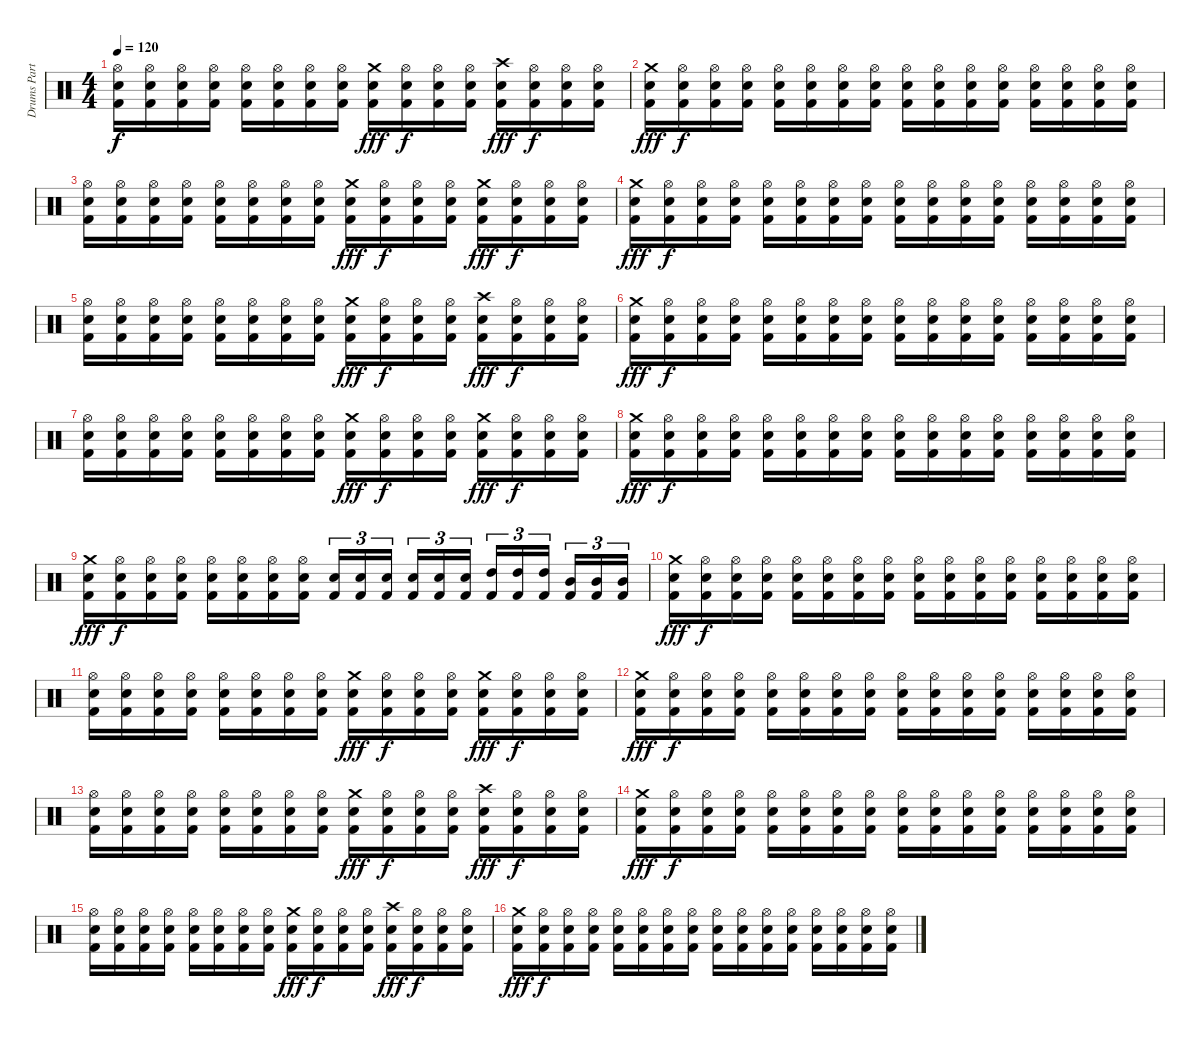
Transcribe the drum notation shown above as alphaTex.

\track ("Drums Part" "Drums Part") {instrument percussion}
\staff {score}
\articulation defaults
\ts (4 4)
\tempo 120
\clef neutral
\ks c
("Hi-Hat (open)" "Electric Snare (hit)" "Kick (hit) 2").16{dy f} ("Hi-Hat (open)" "Electric Snare (hit)" "Kick (hit) 2").16 ("Hi-Hat (open)" "Electric Snare (hit)" "Kick (hit) 2").16 ("Hi-Hat (open)" "Electric Snare (hit)" "Kick (hit) 2").16 ("Hi-Hat (open)" "Electric Snare (hit)" "Kick (hit) 2").16 ("Hi-Hat (open)" "Electric Snare (hit)" "Kick (hit) 2").16 ("Hi-Hat (open)" "Electric Snare (hit)" "Kick (hit) 2").16 ("Hi-Hat (open)" "Electric Snare (hit)" "Kick (hit) 2").16 ("Crash medium (hit)" "Electric Snare (hit)" "Kick (hit) 2").16{dy fff} ("Hi-Hat (open)" "Electric Snare (hit)" "Kick (hit) 2").16{dy f} ("Hi-Hat (open)" "Electric Snare (hit)" "Kick (hit) 2").16 ("Hi-Hat (open)" "Electric Snare (hit)" "Kick (hit) 2").16 ("Crash high (hit)" "Electric Snare (hit)" "Kick (hit) 2").16{dy fff} ("Hi-Hat (open)" "Electric Snare (hit)" "Kick (hit) 2").16{dy f} ("Hi-Hat (open)" "Electric Snare (hit)" "Kick (hit) 2").16 ("Hi-Hat (open)" "Electric Snare (hit)" "Kick (hit) 2").16 |
("Crash medium (hit)" "Electric Snare (hit)" "Kick (hit) 2").16{dy fff} ("Hi-Hat (open)" "Electric Snare (hit)" "Kick (hit) 2").16{dy f} ("Hi-Hat (open)" "Electric Snare (hit)" "Kick (hit) 2").16 ("Hi-Hat (open)" "Electric Snare (hit)" "Kick (hit) 2").16 ("Hi-Hat (open)" "Electric Snare (hit)" "Kick (hit) 2").16 ("Hi-Hat (open)" "Electric Snare (hit)" "Kick (hit) 2").16 ("Hi-Hat (open)" "Electric Snare (hit)" "Kick (hit) 2").16 ("Hi-Hat (open)" "Electric Snare (hit)" "Kick (hit) 2").16 ("Hi-Hat (open)" "Electric Snare (hit)" "Kick (hit) 2").16 ("Hi-Hat (open)" "Electric Snare (hit)" "Kick (hit) 2").16 ("Hi-Hat (open)" "Electric Snare (hit)" "Kick (hit) 2").16 ("Hi-Hat (open)" "Electric Snare (hit)" "Kick (hit) 2").16 ("Hi-Hat (open)" "Electric Snare (hit)" "Kick (hit) 2").16 ("Hi-Hat (open)" "Electric Snare (hit)" "Kick (hit) 2").16 ("Hi-Hat (open)" "Electric Snare (hit)" "Kick (hit) 2").16 ("Hi-Hat (open)" "Electric Snare (hit)" "Kick (hit) 2").16 |
("Hi-Hat (open)" "Electric Snare (hit)" "Kick (hit) 2").16 ("Hi-Hat (open)" "Electric Snare (hit)" "Kick (hit) 2").16 ("Hi-Hat (open)" "Electric Snare (hit)" "Kick (hit) 2").16 ("Hi-Hat (open)" "Electric Snare (hit)" "Kick (hit) 2").16 ("Hi-Hat (open)" "Electric Snare (hit)" "Kick (hit) 2").16 ("Hi-Hat (open)" "Electric Snare (hit)" "Kick (hit) 2").16 ("Hi-Hat (open)" "Electric Snare (hit)" "Kick (hit) 2").16 ("Hi-Hat (open)" "Electric Snare (hit)" "Kick (hit) 2").16 ("Crash medium (hit)" "Electric Snare (hit)" "Kick (hit) 2").16{dy fff} ("Hi-Hat (open)" "Electric Snare (hit)" "Kick (hit) 2").16{dy f} ("Hi-Hat (open)" "Electric Snare (hit)" "Kick (hit) 2").16 ("Hi-Hat (open)" "Electric Snare (hit)" "Kick (hit) 2").16 ("Crash medium (hit)" "Electric Snare (hit)" "Kick (hit) 2").16{dy fff} ("Hi-Hat (open)" "Electric Snare (hit)" "Kick (hit) 2").16{dy f} ("Hi-Hat (open)" "Electric Snare (hit)" "Kick (hit) 2").16 ("Hi-Hat (open)" "Electric Snare (hit)" "Kick (hit) 2").16 |
("Crash medium (hit)" "Electric Snare (hit)" "Kick (hit) 2").16{dy fff} ("Hi-Hat (open)" "Electric Snare (hit)" "Kick (hit) 2").16{dy f} ("Hi-Hat (open)" "Electric Snare (hit)" "Kick (hit) 2").16 ("Hi-Hat (open)" "Electric Snare (hit)" "Kick (hit) 2").16 ("Hi-Hat (open)" "Electric Snare (hit)" "Kick (hit) 2").16 ("Hi-Hat (open)" "Electric Snare (hit)" "Kick (hit) 2").16 ("Hi-Hat (open)" "Electric Snare (hit)" "Kick (hit) 2").16 ("Hi-Hat (open)" "Electric Snare (hit)" "Kick (hit) 2").16 ("Hi-Hat (open)" "Electric Snare (hit)" "Kick (hit) 2").16 ("Hi-Hat (open)" "Electric Snare (hit)" "Kick (hit) 2").16 ("Hi-Hat (open)" "Electric Snare (hit)" "Kick (hit) 2").16 ("Hi-Hat (open)" "Electric Snare (hit)" "Kick (hit) 2").16 ("Hi-Hat (open)" "Electric Snare (hit)" "Kick (hit) 2").16 ("Hi-Hat (open)" "Electric Snare (hit)" "Kick (hit) 2").16 ("Hi-Hat (open)" "Electric Snare (hit)" "Kick (hit) 2").16 ("Hi-Hat (open)" "Electric Snare (hit)" "Kick (hit) 2").16 |
("Hi-Hat (open)" "Electric Snare (hit)" "Kick (hit) 2").16 ("Hi-Hat (open)" "Electric Snare (hit)" "Kick (hit) 2").16 ("Hi-Hat (open)" "Electric Snare (hit)" "Kick (hit) 2").16 ("Hi-Hat (open)" "Electric Snare (hit)" "Kick (hit) 2").16 ("Hi-Hat (open)" "Electric Snare (hit)" "Kick (hit) 2").16 ("Hi-Hat (open)" "Electric Snare (hit)" "Kick (hit) 2").16 ("Hi-Hat (open)" "Electric Snare (hit)" "Kick (hit) 2").16 ("Hi-Hat (open)" "Electric Snare (hit)" "Kick (hit) 2").16 ("Crash medium (hit)" "Electric Snare (hit)" "Kick (hit) 2").16{dy fff} ("Hi-Hat (open)" "Electric Snare (hit)" "Kick (hit) 2").16{dy f} ("Hi-Hat (open)" "Electric Snare (hit)" "Kick (hit) 2").16 ("Hi-Hat (open)" "Electric Snare (hit)" "Kick (hit) 2").16 ("Crash high (hit)" "Electric Snare (hit)" "Kick (hit) 2").16{dy fff} ("Hi-Hat (open)" "Electric Snare (hit)" "Kick (hit) 2").16{dy f} ("Hi-Hat (open)" "Electric Snare (hit)" "Kick (hit) 2").16 ("Hi-Hat (open)" "Electric Snare (hit)" "Kick (hit) 2").16 |
("Crash medium (hit)" "Electric Snare (hit)" "Kick (hit) 2").16{dy fff} ("Hi-Hat (open)" "Electric Snare (hit)" "Kick (hit) 2").16{dy f} ("Hi-Hat (open)" "Electric Snare (hit)" "Kick (hit) 2").16 ("Hi-Hat (open)" "Electric Snare (hit)" "Kick (hit) 2").16 ("Hi-Hat (open)" "Electric Snare (hit)" "Kick (hit) 2").16 ("Hi-Hat (open)" "Electric Snare (hit)" "Kick (hit) 2").16 ("Hi-Hat (open)" "Electric Snare (hit)" "Kick (hit) 2").16 ("Hi-Hat (open)" "Electric Snare (hit)" "Kick (hit) 2").16 ("Hi-Hat (open)" "Electric Snare (hit)" "Kick (hit) 2").16 ("Hi-Hat (open)" "Electric Snare (hit)" "Kick (hit) 2").16 ("Hi-Hat (open)" "Electric Snare (hit)" "Kick (hit) 2").16 ("Hi-Hat (open)" "Electric Snare (hit)" "Kick (hit) 2").16 ("Hi-Hat (open)" "Electric Snare (hit)" "Kick (hit) 2").16 ("Hi-Hat (open)" "Electric Snare (hit)" "Kick (hit) 2").16 ("Hi-Hat (open)" "Electric Snare (hit)" "Kick (hit) 2").16 ("Hi-Hat (open)" "Electric Snare (hit)" "Kick (hit) 2").16 |
("Hi-Hat (open)" "Electric Snare (hit)" "Kick (hit) 2").16 ("Hi-Hat (open)" "Electric Snare (hit)" "Kick (hit) 2").16 ("Hi-Hat (open)" "Electric Snare (hit)" "Kick (hit) 2").16 ("Hi-Hat (open)" "Electric Snare (hit)" "Kick (hit) 2").16 ("Hi-Hat (open)" "Electric Snare (hit)" "Kick (hit) 2").16 ("Hi-Hat (open)" "Electric Snare (hit)" "Kick (hit) 2").16 ("Hi-Hat (open)" "Electric Snare (hit)" "Kick (hit) 2").16 ("Hi-Hat (open)" "Electric Snare (hit)" "Kick (hit) 2").16 ("Crash medium (hit)" "Electric Snare (hit)" "Kick (hit) 2").16{dy fff} ("Hi-Hat (open)" "Electric Snare (hit)" "Kick (hit) 2").16{dy f} ("Hi-Hat (open)" "Electric Snare (hit)" "Kick (hit) 2").16 ("Hi-Hat (open)" "Electric Snare (hit)" "Kick (hit) 2").16 ("Crash medium (hit)" "Electric Snare (hit)" "Kick (hit) 2").16{dy fff} ("Hi-Hat (open)" "Electric Snare (hit)" "Kick (hit) 2").16{dy f} ("Hi-Hat (open)" "Electric Snare (hit)" "Kick (hit) 2").16 ("Hi-Hat (open)" "Electric Snare (hit)" "Kick (hit) 2").16 |
("Crash medium (hit)" "Electric Snare (hit)" "Kick (hit) 2").16{dy fff} ("Hi-Hat (open)" "Electric Snare (hit)" "Kick (hit) 2").16{dy f} ("Hi-Hat (open)" "Electric Snare (hit)" "Kick (hit) 2").16 ("Hi-Hat (open)" "Electric Snare (hit)" "Kick (hit) 2").16 ("Hi-Hat (open)" "Electric Snare (hit)" "Kick (hit) 2").16 ("Hi-Hat (open)" "Electric Snare (hit)" "Kick (hit) 2").16 ("Hi-Hat (open)" "Electric Snare (hit)" "Kick (hit) 2").16 ("Hi-Hat (open)" "Electric Snare (hit)" "Kick (hit) 2").16 ("Hi-Hat (open)" "Electric Snare (hit)" "Kick (hit) 2").16 ("Hi-Hat (open)" "Electric Snare (hit)" "Kick (hit) 2").16 ("Hi-Hat (open)" "Electric Snare (hit)" "Kick (hit) 2").16 ("Hi-Hat (open)" "Electric Snare (hit)" "Kick (hit) 2").16 ("Hi-Hat (open)" "Electric Snare (hit)" "Kick (hit) 2").16 ("Hi-Hat (open)" "Electric Snare (hit)" "Kick (hit) 2").16 ("Hi-Hat (open)" "Electric Snare (hit)" "Kick (hit) 2").16 ("Hi-Hat (open)" "Electric Snare (hit)" "Kick (hit) 2").16 |
("Crash medium (hit)" "Electric Snare (hit)" "Kick (hit) 2").16{dy fff} ("Hi-Hat (open)" "Electric Snare (hit)" "Kick (hit) 2").16{dy f} ("Hi-Hat (open)" "Electric Snare (hit)" "Kick (hit) 2").16 ("Hi-Hat (open)" "Electric Snare (hit)" "Kick (hit) 2").16 ("Hi-Hat (open)" "Electric Snare (hit)" "Kick (hit) 2").16 ("Hi-Hat (open)" "Electric Snare (hit)" "Kick (hit) 2").16 ("Hi-Hat (open)" "Electric Snare (hit)" "Kick (hit) 2").16 ("Hi-Hat (open)" "Electric Snare (hit)" "Kick (hit) 2").16 ("Electric Snare (hit)" "Kick (hit) 2").16{tu (3 2)} ("Electric Snare (hit)" "Kick (hit) 2").16{tu (3 2)} ("Electric Snare (hit)" "Kick (hit) 2").16{tu (3 2)} ("Electric Snare (hit)" "Kick (hit) 2").16{tu (3 2)} ("Electric Snare (hit)" "Kick (hit) 2").16{tu (3 2)} ("Electric Snare (hit)" "Kick (hit) 2").16{tu (3 2)} ("High Tom (hit)" "Kick (hit) 2").16{tu (3 2)} ("High Tom (hit)" "Kick (hit) 2").16{tu (3 2)} ("High Tom (hit)" "Kick (hit) 2").16{tu (3 2)} ("Mid Tom (hit)" "Kick (hit) 2").16{tu (3 2)} ("Mid Tom (hit)" "Kick (hit) 2").16{tu (3 2)} ("Mid Tom (hit)" "Kick (hit) 2").16{tu (3 2)} |
("Crash medium (hit)" "Electric Snare (hit)" "Kick (hit) 2").16{dy fff} ("Hi-Hat (open)" "Electric Snare (hit)" "Kick (hit) 2").16{dy f} ("Hi-Hat (open)" "Electric Snare (hit)" "Kick (hit) 2").16 ("Hi-Hat (open)" "Electric Snare (hit)" "Kick (hit) 2").16 ("Hi-Hat (open)" "Electric Snare (hit)" "Kick (hit) 2").16 ("Hi-Hat (open)" "Electric Snare (hit)" "Kick (hit) 2").16 ("Hi-Hat (open)" "Electric Snare (hit)" "Kick (hit) 2").16 ("Hi-Hat (open)" "Electric Snare (hit)" "Kick (hit) 2").16 ("Hi-Hat (open)" "Electric Snare (hit)" "Kick (hit) 2").16 ("Hi-Hat (open)" "Electric Snare (hit)" "Kick (hit) 2").16 ("Hi-Hat (open)" "Electric Snare (hit)" "Kick (hit) 2").16 ("Hi-Hat (open)" "Electric Snare (hit)" "Kick (hit) 2").16 ("Hi-Hat (open)" "Electric Snare (hit)" "Kick (hit) 2").16 ("Hi-Hat (open)" "Electric Snare (hit)" "Kick (hit) 2").16 ("Hi-Hat (open)" "Electric Snare (hit)" "Kick (hit) 2").16 ("Hi-Hat (open)" "Electric Snare (hit)" "Kick (hit) 2").16 |
("Hi-Hat (open)" "Electric Snare (hit)" "Kick (hit) 2").16 ("Hi-Hat (open)" "Electric Snare (hit)" "Kick (hit) 2").16 ("Hi-Hat (open)" "Electric Snare (hit)" "Kick (hit) 2").16 ("Hi-Hat (open)" "Electric Snare (hit)" "Kick (hit) 2").16 ("Hi-Hat (open)" "Electric Snare (hit)" "Kick (hit) 2").16 ("Hi-Hat (open)" "Electric Snare (hit)" "Kick (hit) 2").16 ("Hi-Hat (open)" "Electric Snare (hit)" "Kick (hit) 2").16 ("Hi-Hat (open)" "Electric Snare (hit)" "Kick (hit) 2").16 ("Crash medium (hit)" "Electric Snare (hit)" "Kick (hit) 2").16{dy fff} ("Hi-Hat (open)" "Electric Snare (hit)" "Kick (hit) 2").16{dy f} ("Hi-Hat (open)" "Electric Snare (hit)" "Kick (hit) 2").16 ("Hi-Hat (open)" "Electric Snare (hit)" "Kick (hit) 2").16 ("Crash medium (hit)" "Electric Snare (hit)" "Kick (hit) 2").16{dy fff} ("Hi-Hat (open)" "Electric Snare (hit)" "Kick (hit) 2").16{dy f} ("Hi-Hat (open)" "Electric Snare (hit)" "Kick (hit) 2").16 ("Hi-Hat (open)" "Electric Snare (hit)" "Kick (hit) 2").16 |
("Crash medium (hit)" "Electric Snare (hit)" "Kick (hit) 2").16{dy fff} ("Hi-Hat (open)" "Electric Snare (hit)" "Kick (hit) 2").16{dy f} ("Hi-Hat (open)" "Electric Snare (hit)" "Kick (hit) 2").16 ("Hi-Hat (open)" "Electric Snare (hit)" "Kick (hit) 2").16 ("Hi-Hat (open)" "Electric Snare (hit)" "Kick (hit) 2").16 ("Hi-Hat (open)" "Electric Snare (hit)" "Kick (hit) 2").16 ("Hi-Hat (open)" "Electric Snare (hit)" "Kick (hit) 2").16 ("Hi-Hat (open)" "Electric Snare (hit)" "Kick (hit) 2").16 ("Hi-Hat (open)" "Electric Snare (hit)" "Kick (hit) 2").16 ("Hi-Hat (open)" "Electric Snare (hit)" "Kick (hit) 2").16 ("Hi-Hat (open)" "Electric Snare (hit)" "Kick (hit) 2").16 ("Hi-Hat (open)" "Electric Snare (hit)" "Kick (hit) 2").16 ("Hi-Hat (open)" "Electric Snare (hit)" "Kick (hit) 2").16 ("Hi-Hat (open)" "Electric Snare (hit)" "Kick (hit) 2").16 ("Hi-Hat (open)" "Electric Snare (hit)" "Kick (hit) 2").16 ("Hi-Hat (open)" "Electric Snare (hit)" "Kick (hit) 2").16 |
("Hi-Hat (open)" "Electric Snare (hit)" "Kick (hit) 2").16 ("Hi-Hat (open)" "Electric Snare (hit)" "Kick (hit) 2").16 ("Hi-Hat (open)" "Electric Snare (hit)" "Kick (hit) 2").16 ("Hi-Hat (open)" "Electric Snare (hit)" "Kick (hit) 2").16 ("Hi-Hat (open)" "Electric Snare (hit)" "Kick (hit) 2").16 ("Hi-Hat (open)" "Electric Snare (hit)" "Kick (hit) 2").16 ("Hi-Hat (open)" "Electric Snare (hit)" "Kick (hit) 2").16 ("Hi-Hat (open)" "Electric Snare (hit)" "Kick (hit) 2").16 ("Crash medium (hit)" "Electric Snare (hit)" "Kick (hit) 2").16{dy fff} ("Hi-Hat (open)" "Electric Snare (hit)" "Kick (hit) 2").16{dy f} ("Hi-Hat (open)" "Electric Snare (hit)" "Kick (hit) 2").16 ("Hi-Hat (open)" "Electric Snare (hit)" "Kick (hit) 2").16 ("Crash high (hit)" "Electric Snare (hit)" "Kick (hit) 2").16{dy fff} ("Hi-Hat (open)" "Electric Snare (hit)" "Kick (hit) 2").16{dy f} ("Hi-Hat (open)" "Electric Snare (hit)" "Kick (hit) 2").16 ("Hi-Hat (open)" "Electric Snare (hit)" "Kick (hit) 2").16 |
("Crash medium (hit)" "Electric Snare (hit)" "Kick (hit) 2").16{dy fff} ("Hi-Hat (open)" "Electric Snare (hit)" "Kick (hit) 2").16{dy f} ("Hi-Hat (open)" "Electric Snare (hit)" "Kick (hit) 2").16 ("Hi-Hat (open)" "Electric Snare (hit)" "Kick (hit) 2").16 ("Hi-Hat (open)" "Electric Snare (hit)" "Kick (hit) 2").16 ("Hi-Hat (open)" "Electric Snare (hit)" "Kick (hit) 2").16 ("Hi-Hat (open)" "Electric Snare (hit)" "Kick (hit) 2").16 ("Hi-Hat (open)" "Electric Snare (hit)" "Kick (hit) 2").16 ("Hi-Hat (open)" "Electric Snare (hit)" "Kick (hit) 2").16 ("Hi-Hat (open)" "Electric Snare (hit)" "Kick (hit) 2").16 ("Hi-Hat (open)" "Electric Snare (hit)" "Kick (hit) 2").16 ("Hi-Hat (open)" "Electric Snare (hit)" "Kick (hit) 2").16 ("Hi-Hat (open)" "Electric Snare (hit)" "Kick (hit) 2").16 ("Hi-Hat (open)" "Electric Snare (hit)" "Kick (hit) 2").16 ("Hi-Hat (open)" "Electric Snare (hit)" "Kick (hit) 2").16 ("Hi-Hat (open)" "Electric Snare (hit)" "Kick (hit) 2").16 |
("Hi-Hat (open)" "Electric Snare (hit)" "Kick (hit) 2").16 ("Hi-Hat (open)" "Electric Snare (hit)" "Kick (hit) 2").16 ("Hi-Hat (open)" "Electric Snare (hit)" "Kick (hit) 2").16 ("Hi-Hat (open)" "Electric Snare (hit)" "Kick (hit) 2").16 ("Hi-Hat (open)" "Electric Snare (hit)" "Kick (hit) 2").16 ("Hi-Hat (open)" "Electric Snare (hit)" "Kick (hit) 2").16 ("Hi-Hat (open)" "Electric Snare (hit)" "Kick (hit) 2").16 ("Hi-Hat (open)" "Electric Snare (hit)" "Kick (hit) 2").16 ("Crash medium (hit)" "Electric Snare (hit)" "Kick (hit) 2").16{dy fff} ("Hi-Hat (open)" "Electric Snare (hit)" "Kick (hit) 2").16{dy f} ("Hi-Hat (open)" "Electric Snare (hit)" "Kick (hit) 2").16 ("Hi-Hat (open)" "Electric Snare (hit)" "Kick (hit) 2").16 ("Crash high (hit)" "Electric Snare (hit)" "Kick (hit) 2").16{dy fff} ("Hi-Hat (open)" "Electric Snare (hit)" "Kick (hit) 2").16{dy f} ("Hi-Hat (open)" "Electric Snare (hit)" "Kick (hit) 2").16 ("Hi-Hat (open)" "Electric Snare (hit)" "Kick (hit) 2").16 |
("Crash medium (hit)" "Electric Snare (hit)" "Kick (hit) 2").16{dy fff} ("Hi-Hat (open)" "Electric Snare (hit)" "Kick (hit) 2").16{dy f} ("Hi-Hat (open)" "Electric Snare (hit)" "Kick (hit) 2").16 ("Hi-Hat (open)" "Electric Snare (hit)" "Kick (hit) 2").16 ("Hi-Hat (open)" "Electric Snare (hit)" "Kick (hit) 2").16 ("Hi-Hat (open)" "Electric Snare (hit)" "Kick (hit) 2").16 ("Hi-Hat (open)" "Electric Snare (hit)" "Kick (hit) 2").16 ("Hi-Hat (open)" "Electric Snare (hit)" "Kick (hit) 2").16 ("Hi-Hat (open)" "Electric Snare (hit)" "Kick (hit) 2").16 ("Hi-Hat (open)" "Electric Snare (hit)" "Kick (hit) 2").16 ("Hi-Hat (open)" "Electric Snare (hit)" "Kick (hit) 2").16 ("Hi-Hat (open)" "Electric Snare (hit)" "Kick (hit) 2").16 ("Hi-Hat (open)" "Electric Snare (hit)" "Kick (hit) 2").16 ("Hi-Hat (open)" "Electric Snare (hit)" "Kick (hit) 2").16 ("Hi-Hat (open)" "Electric Snare (hit)" "Kick (hit) 2").16 ("Hi-Hat (open)" "Electric Snare (hit)" "Kick (hit) 2").16
